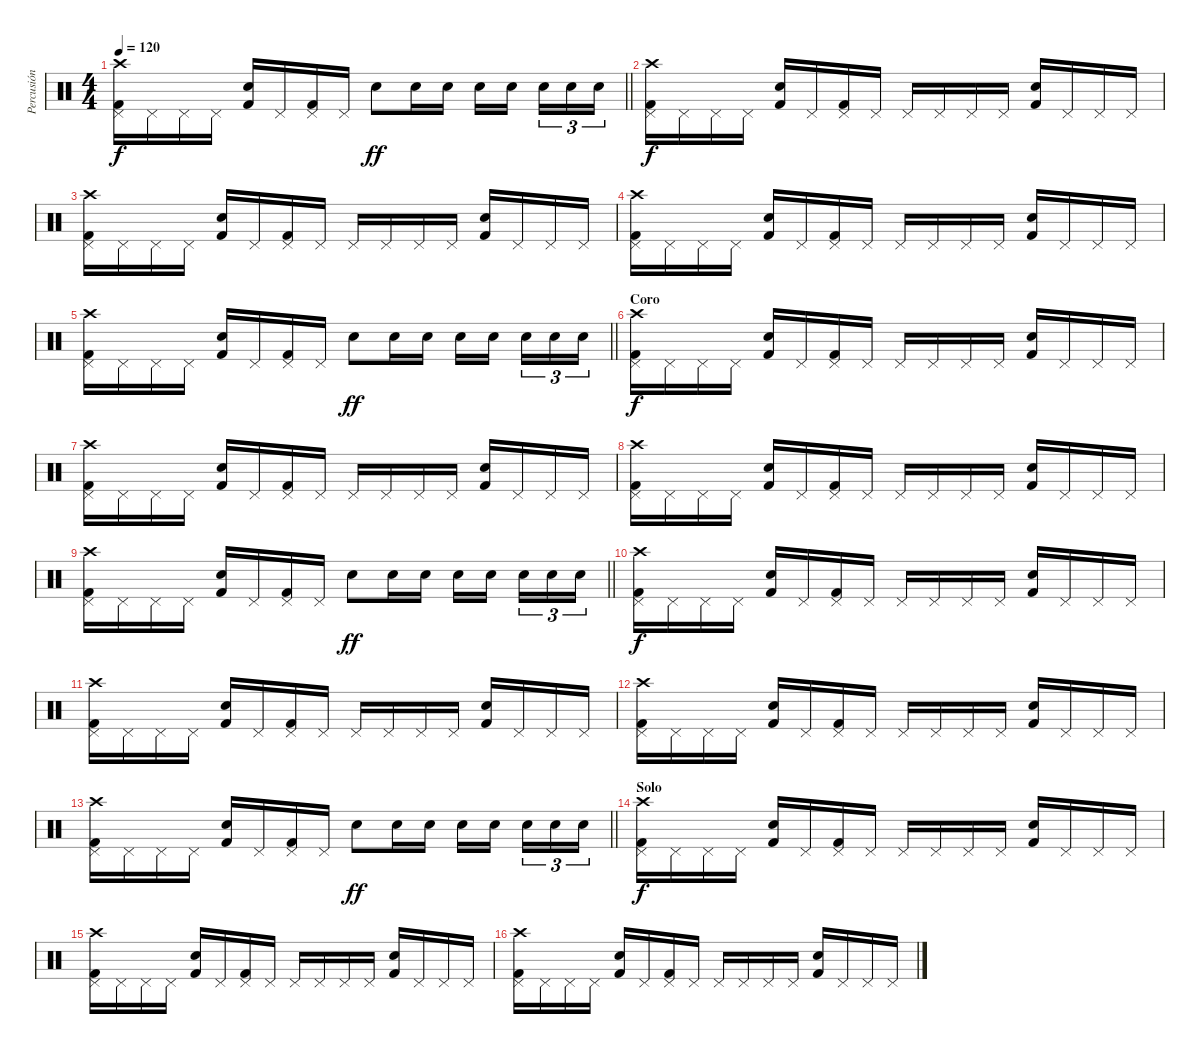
\track ("Percusión" "Percusión") {instrument percussion}
\staff {score}
\articulation defaults
\ts (4 4)
\tempo 120
\clef neutral
\barLineRight lightlight
\ks c
("Pedal Hi-Hat (hit)" "Kick (hit) 2" "Crash high (hit)").16{dy f} "Pedal Hi-Hat (hit)".16 "Pedal Hi-Hat (hit)".16 "Pedal Hi-Hat (hit)".16 ("Snare (hit) 2" "Kick (hit) 2").16 "Pedal Hi-Hat (hit)".16 ("Pedal Hi-Hat (hit)" "Kick (hit) 2").16 "Pedal Hi-Hat (hit)".16 "Snare (hit) 2".8{dy ff} "Snare (hit) 2".16 "Snare (hit) 2".16 "Snare (hit) 2".16 "Snare (hit) 2".16{beam splitsecondary} "Snare (hit) 2".16{tu (3 2)} "Snare (hit) 2".16{tu (3 2)} "Snare (hit) 2".16{tu (3 2)} |
("Pedal Hi-Hat (hit)" "Kick (hit) 2" "Crash high (hit)").16{dy f} "Pedal Hi-Hat (hit)".16 "Pedal Hi-Hat (hit)".16 "Pedal Hi-Hat (hit)".16 ("Snare (hit) 2" "Kick (hit) 2").16 "Pedal Hi-Hat (hit)".16 ("Pedal Hi-Hat (hit)" "Kick (hit) 2").16 "Pedal Hi-Hat (hit)".16 "Pedal Hi-Hat (hit)".16 "Pedal Hi-Hat (hit)".16 "Pedal Hi-Hat (hit)".16 "Pedal Hi-Hat (hit)".16 ("Snare (hit) 2" "Kick (hit) 2").16 "Pedal Hi-Hat (hit)".16 "Pedal Hi-Hat (hit)".16 "Pedal Hi-Hat (hit)".16 |
("Pedal Hi-Hat (hit)" "Kick (hit) 2" "Crash high (hit)").16 "Pedal Hi-Hat (hit)".16 "Pedal Hi-Hat (hit)".16 "Pedal Hi-Hat (hit)".16 ("Snare (hit) 2" "Kick (hit) 2").16 "Pedal Hi-Hat (hit)".16 ("Pedal Hi-Hat (hit)" "Kick (hit) 2").16 "Pedal Hi-Hat (hit)".16 "Pedal Hi-Hat (hit)".16 "Pedal Hi-Hat (hit)".16 "Pedal Hi-Hat (hit)".16 "Pedal Hi-Hat (hit)".16 ("Snare (hit) 2" "Kick (hit) 2").16 "Pedal Hi-Hat (hit)".16 "Pedal Hi-Hat (hit)".16 "Pedal Hi-Hat (hit)".16 |
("Pedal Hi-Hat (hit)" "Kick (hit) 2" "Crash high (hit)").16 "Pedal Hi-Hat (hit)".16 "Pedal Hi-Hat (hit)".16 "Pedal Hi-Hat (hit)".16 ("Snare (hit) 2" "Kick (hit) 2").16 "Pedal Hi-Hat (hit)".16 ("Pedal Hi-Hat (hit)" "Kick (hit) 2").16 "Pedal Hi-Hat (hit)".16 "Pedal Hi-Hat (hit)".16 "Pedal Hi-Hat (hit)".16 "Pedal Hi-Hat (hit)".16 "Pedal Hi-Hat (hit)".16 ("Snare (hit) 2" "Kick (hit) 2").16 "Pedal Hi-Hat (hit)".16 "Pedal Hi-Hat (hit)".16 "Pedal Hi-Hat (hit)".16 |
\barLineRight lightlight
("Pedal Hi-Hat (hit)" "Kick (hit) 2" "Crash high (hit)").16 "Pedal Hi-Hat (hit)".16 "Pedal Hi-Hat (hit)".16 "Pedal Hi-Hat (hit)".16 ("Snare (hit) 2" "Kick (hit) 2").16 "Pedal Hi-Hat (hit)".16 ("Pedal Hi-Hat (hit)" "Kick (hit) 2").16 "Pedal Hi-Hat (hit)".16 "Snare (hit) 2".8{dy ff} "Snare (hit) 2".16 "Snare (hit) 2".16 "Snare (hit) 2".16 "Snare (hit) 2".16{beam splitsecondary} "Snare (hit) 2".16{tu (3 2)} "Snare (hit) 2".16{tu (3 2)} "Snare (hit) 2".16{tu (3 2)} |
\section ("" "Coro")
("Pedal Hi-Hat (hit)" "Kick (hit) 2" "Crash high (hit)").16{dy f} "Pedal Hi-Hat (hit)".16 "Pedal Hi-Hat (hit)".16 "Pedal Hi-Hat (hit)".16 ("Snare (hit) 2" "Kick (hit) 2").16 "Pedal Hi-Hat (hit)".16 ("Pedal Hi-Hat (hit)" "Kick (hit) 2").16 "Pedal Hi-Hat (hit)".16 "Pedal Hi-Hat (hit)".16 "Pedal Hi-Hat (hit)".16 "Pedal Hi-Hat (hit)".16 "Pedal Hi-Hat (hit)".16 ("Snare (hit) 2" "Kick (hit) 2").16 "Pedal Hi-Hat (hit)".16 "Pedal Hi-Hat (hit)".16 "Pedal Hi-Hat (hit)".16 |
("Pedal Hi-Hat (hit)" "Kick (hit) 2" "Crash high (hit)").16 "Pedal Hi-Hat (hit)".16 "Pedal Hi-Hat (hit)".16 "Pedal Hi-Hat (hit)".16 ("Snare (hit) 2" "Kick (hit) 2").16 "Pedal Hi-Hat (hit)".16 ("Pedal Hi-Hat (hit)" "Kick (hit) 2").16 "Pedal Hi-Hat (hit)".16 "Pedal Hi-Hat (hit)".16 "Pedal Hi-Hat (hit)".16 "Pedal Hi-Hat (hit)".16 "Pedal Hi-Hat (hit)".16 ("Snare (hit) 2" "Kick (hit) 2").16 "Pedal Hi-Hat (hit)".16 "Pedal Hi-Hat (hit)".16 "Pedal Hi-Hat (hit)".16 |
("Pedal Hi-Hat (hit)" "Kick (hit) 2" "Crash high (hit)").16 "Pedal Hi-Hat (hit)".16 "Pedal Hi-Hat (hit)".16 "Pedal Hi-Hat (hit)".16 ("Snare (hit) 2" "Kick (hit) 2").16 "Pedal Hi-Hat (hit)".16 ("Pedal Hi-Hat (hit)" "Kick (hit) 2").16 "Pedal Hi-Hat (hit)".16 "Pedal Hi-Hat (hit)".16 "Pedal Hi-Hat (hit)".16 "Pedal Hi-Hat (hit)".16 "Pedal Hi-Hat (hit)".16 ("Snare (hit) 2" "Kick (hit) 2").16 "Pedal Hi-Hat (hit)".16 "Pedal Hi-Hat (hit)".16 "Pedal Hi-Hat (hit)".16 |
\barLineRight lightlight
("Pedal Hi-Hat (hit)" "Kick (hit) 2" "Crash high (hit)").16 "Pedal Hi-Hat (hit)".16 "Pedal Hi-Hat (hit)".16 "Pedal Hi-Hat (hit)".16 ("Snare (hit) 2" "Kick (hit) 2").16 "Pedal Hi-Hat (hit)".16 ("Pedal Hi-Hat (hit)" "Kick (hit) 2").16 "Pedal Hi-Hat (hit)".16 "Snare (hit) 2".8{dy ff} "Snare (hit) 2".16 "Snare (hit) 2".16 "Snare (hit) 2".16 "Snare (hit) 2".16{beam splitsecondary} "Snare (hit) 2".16{tu (3 2)} "Snare (hit) 2".16{tu (3 2)} "Snare (hit) 2".16{tu (3 2)} |
("Pedal Hi-Hat (hit)" "Kick (hit) 2" "Crash high (hit)").16{dy f} "Pedal Hi-Hat (hit)".16 "Pedal Hi-Hat (hit)".16 "Pedal Hi-Hat (hit)".16 ("Snare (hit) 2" "Kick (hit) 2").16 "Pedal Hi-Hat (hit)".16 ("Pedal Hi-Hat (hit)" "Kick (hit) 2").16 "Pedal Hi-Hat (hit)".16 "Pedal Hi-Hat (hit)".16 "Pedal Hi-Hat (hit)".16 "Pedal Hi-Hat (hit)".16 "Pedal Hi-Hat (hit)".16 ("Snare (hit) 2" "Kick (hit) 2").16 "Pedal Hi-Hat (hit)".16 "Pedal Hi-Hat (hit)".16 "Pedal Hi-Hat (hit)".16 |
("Pedal Hi-Hat (hit)" "Kick (hit) 2" "Crash high (hit)").16 "Pedal Hi-Hat (hit)".16 "Pedal Hi-Hat (hit)".16 "Pedal Hi-Hat (hit)".16 ("Snare (hit) 2" "Kick (hit) 2").16 "Pedal Hi-Hat (hit)".16 ("Pedal Hi-Hat (hit)" "Kick (hit) 2").16 "Pedal Hi-Hat (hit)".16 "Pedal Hi-Hat (hit)".16 "Pedal Hi-Hat (hit)".16 "Pedal Hi-Hat (hit)".16 "Pedal Hi-Hat (hit)".16 ("Snare (hit) 2" "Kick (hit) 2").16 "Pedal Hi-Hat (hit)".16 "Pedal Hi-Hat (hit)".16 "Pedal Hi-Hat (hit)".16 |
("Pedal Hi-Hat (hit)" "Kick (hit) 2" "Crash high (hit)").16 "Pedal Hi-Hat (hit)".16 "Pedal Hi-Hat (hit)".16 "Pedal Hi-Hat (hit)".16 ("Snare (hit) 2" "Kick (hit) 2").16 "Pedal Hi-Hat (hit)".16 ("Pedal Hi-Hat (hit)" "Kick (hit) 2").16 "Pedal Hi-Hat (hit)".16 "Pedal Hi-Hat (hit)".16 "Pedal Hi-Hat (hit)".16 "Pedal Hi-Hat (hit)".16 "Pedal Hi-Hat (hit)".16 ("Snare (hit) 2" "Kick (hit) 2").16 "Pedal Hi-Hat (hit)".16 "Pedal Hi-Hat (hit)".16 "Pedal Hi-Hat (hit)".16 |
\barLineRight lightlight
("Pedal Hi-Hat (hit)" "Kick (hit) 2" "Crash high (hit)").16 "Pedal Hi-Hat (hit)".16 "Pedal Hi-Hat (hit)".16 "Pedal Hi-Hat (hit)".16 ("Snare (hit) 2" "Kick (hit) 2").16 "Pedal Hi-Hat (hit)".16 ("Pedal Hi-Hat (hit)" "Kick (hit) 2").16 "Pedal Hi-Hat (hit)".16 "Snare (hit) 2".8{dy ff} "Snare (hit) 2".16 "Snare (hit) 2".16 "Snare (hit) 2".16 "Snare (hit) 2".16{beam splitsecondary} "Snare (hit) 2".16{tu (3 2)} "Snare (hit) 2".16{tu (3 2)} "Snare (hit) 2".16{tu (3 2)} |
\section ("" "Solo")
("Pedal Hi-Hat (hit)" "Kick (hit) 2" "Crash high (hit)").16{dy f} "Pedal Hi-Hat (hit)".16 "Pedal Hi-Hat (hit)".16 "Pedal Hi-Hat (hit)".16 ("Snare (hit) 2" "Kick (hit) 2").16 "Pedal Hi-Hat (hit)".16 ("Pedal Hi-Hat (hit)" "Kick (hit) 2").16 "Pedal Hi-Hat (hit)".16 "Pedal Hi-Hat (hit)".16 "Pedal Hi-Hat (hit)".16 "Pedal Hi-Hat (hit)".16 "Pedal Hi-Hat (hit)".16 ("Snare (hit) 2" "Kick (hit) 2").16 "Pedal Hi-Hat (hit)".16 "Pedal Hi-Hat (hit)".16 "Pedal Hi-Hat (hit)".16 |
("Pedal Hi-Hat (hit)" "Kick (hit) 2" "Crash high (hit)").16 "Pedal Hi-Hat (hit)".16 "Pedal Hi-Hat (hit)".16 "Pedal Hi-Hat (hit)".16 ("Snare (hit) 2" "Kick (hit) 2").16 "Pedal Hi-Hat (hit)".16 ("Pedal Hi-Hat (hit)" "Kick (hit) 2").16 "Pedal Hi-Hat (hit)".16 "Pedal Hi-Hat (hit)".16 "Pedal Hi-Hat (hit)".16 "Pedal Hi-Hat (hit)".16 "Pedal Hi-Hat (hit)".16 ("Snare (hit) 2" "Kick (hit) 2").16 "Pedal Hi-Hat (hit)".16 "Pedal Hi-Hat (hit)".16 "Pedal Hi-Hat (hit)".16 |
("Pedal Hi-Hat (hit)" "Kick (hit) 2" "Crash high (hit)").16 "Pedal Hi-Hat (hit)".16 "Pedal Hi-Hat (hit)".16 "Pedal Hi-Hat (hit)".16 ("Snare (hit) 2" "Kick (hit) 2").16 "Pedal Hi-Hat (hit)".16 ("Pedal Hi-Hat (hit)" "Kick (hit) 2").16 "Pedal Hi-Hat (hit)".16 "Pedal Hi-Hat (hit)".16 "Pedal Hi-Hat (hit)".16 "Pedal Hi-Hat (hit)".16 "Pedal Hi-Hat (hit)".16 ("Snare (hit) 2" "Kick (hit) 2").16 "Pedal Hi-Hat (hit)".16 "Pedal Hi-Hat (hit)".16 "Pedal Hi-Hat (hit)".16
